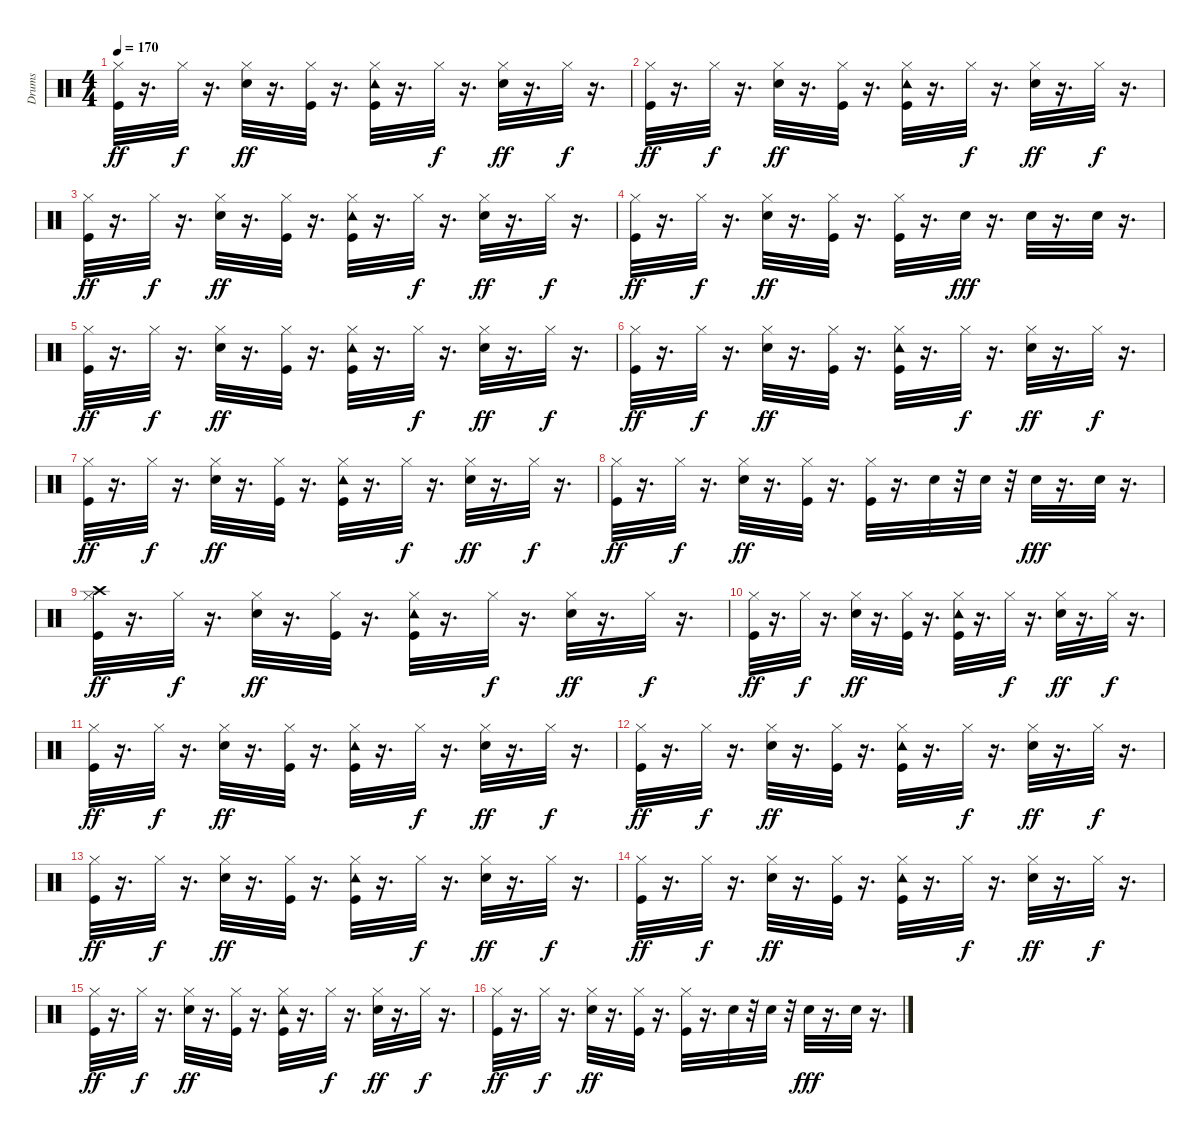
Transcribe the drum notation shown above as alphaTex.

\track ("Drums" "Drums") {instrument percussion}
\staff {score}
\articulation defaults
\ts (4 4)
\tempo 170
\clef neutral
\ks c
("Kick (hit)" "Hi-Hat (closed)").32{dy ff} r.16{d} "Hi-Hat (closed)".32{dy f} r.16{d} ("Snare (hit) 2" "Hi-Hat (closed)").32{dy ff} r.16{d} ("Hi-Hat (closed)" "Kick (hit)").32 r.16{d} ("Kick (hit)" "Tambourine (hit)" "Hi-Hat (closed)").32 r.16{d} "Hi-Hat (closed)".32{dy f} r.16{d} ("Snare (hit) 2" "Hi-Hat (closed)").32{dy ff} r.16{d} "Hi-Hat (closed)".32{dy f} r.16{d} |
("Kick (hit)" "Hi-Hat (closed)").32{dy ff} r.16{d} "Hi-Hat (closed)".32{dy f} r.16{d} ("Snare (hit) 2" "Hi-Hat (closed)").32{dy ff} r.16{d} ("Hi-Hat (closed)" "Kick (hit)").32 r.16{d} ("Kick (hit)" "Tambourine (hit)" "Hi-Hat (closed)").32 r.16{d} "Hi-Hat (closed)".32{dy f} r.16{d} ("Snare (hit) 2" "Hi-Hat (closed)").32{dy ff} r.16{d} "Hi-Hat (closed)".32{dy f} r.16{d} |
("Kick (hit)" "Hi-Hat (closed)").32{dy ff} r.16{d} "Hi-Hat (closed)".32{dy f} r.16{d} ("Snare (hit) 2" "Hi-Hat (closed)").32{dy ff} r.16{d} ("Hi-Hat (closed)" "Kick (hit)").32 r.16{d} ("Kick (hit)" "Tambourine (hit)" "Hi-Hat (closed)").32 r.16{d} "Hi-Hat (closed)".32{dy f} r.16{d} ("Snare (hit) 2" "Hi-Hat (closed)").32{dy ff} r.16{d} "Hi-Hat (closed)".32{dy f} r.16{d} |
("Kick (hit)" "Hi-Hat (closed)").32{dy ff} r.16{d} "Hi-Hat (closed)".32{dy f} r.16{d} ("Snare (hit) 2" "Hi-Hat (closed)").32{dy ff} r.16{d} ("Hi-Hat (closed)" "Kick (hit)").32 r.16{d} ("Kick (hit)" "Hi-Hat (closed)").32 r.16{d} "Snare (hit) 2".32{dy fff} r.16{d} "Snare (hit) 2".32 r.16{d} "Snare (hit) 2".32 r.16{d} |
("Kick (hit)" "Hi-Hat (closed)").32{dy ff} r.16{d} "Hi-Hat (closed)".32{dy f} r.16{d} ("Snare (hit) 2" "Hi-Hat (closed)").32{dy ff} r.16{d} ("Hi-Hat (closed)" "Kick (hit)").32 r.16{d} ("Kick (hit)" "Tambourine (hit)" "Hi-Hat (closed)").32 r.16{d} "Hi-Hat (closed)".32{dy f} r.16{d} ("Snare (hit) 2" "Hi-Hat (closed)").32{dy ff} r.16{d} "Hi-Hat (closed)".32{dy f} r.16{d} |
("Kick (hit)" "Hi-Hat (closed)").32{dy ff} r.16{d} "Hi-Hat (closed)".32{dy f} r.16{d} ("Snare (hit) 2" "Hi-Hat (closed)").32{dy ff} r.16{d} ("Hi-Hat (closed)" "Kick (hit)").32 r.16{d} ("Kick (hit)" "Tambourine (hit)" "Hi-Hat (closed)").32 r.16{d} "Hi-Hat (closed)".32{dy f} r.16{d} ("Snare (hit) 2" "Hi-Hat (closed)").32{dy ff} r.16{d} "Hi-Hat (closed)".32{dy f} r.16{d} |
("Kick (hit)" "Hi-Hat (closed)").32{dy ff} r.16{d} "Hi-Hat (closed)".32{dy f} r.16{d} ("Snare (hit) 2" "Hi-Hat (closed)").32{dy ff} r.16{d} ("Hi-Hat (closed)" "Kick (hit)").32 r.16{d} ("Kick (hit)" "Tambourine (hit)" "Hi-Hat (closed)").32 r.16{d} "Hi-Hat (closed)".32{dy f} r.16{d} ("Snare (hit) 2" "Hi-Hat (closed)").32{dy ff} r.16{d} "Hi-Hat (closed)".32{dy f} r.16{d} |
("Kick (hit)" "Hi-Hat (closed)").32{dy ff} r.16{d} "Hi-Hat (closed)".32{dy f} r.16{d} ("Snare (hit) 2" "Hi-Hat (closed)").32{dy ff} r.16{d} ("Hi-Hat (closed)" "Kick (hit)").32 r.16{d} ("Kick (hit)" "Hi-Hat (closed)").32 r.16{d} "Snare (hit) 2".32 r.32 "Snare (hit) 2".32 r.32 "Snare (hit) 2".32{dy fff} r.16{d} "Snare (hit) 2".32 r.16{d} |
("Kick (hit)" "Crash high (hit)" "Hi-Hat (closed)").32{dy ff} r.16{d} "Hi-Hat (closed)".32{dy f} r.16{d} ("Snare (hit) 2" "Hi-Hat (closed)").32{dy ff} r.16{d} ("Hi-Hat (closed)" "Kick (hit)").32 r.16{d} ("Kick (hit)" "Tambourine (hit)" "Hi-Hat (closed)").32 r.16{d} "Hi-Hat (closed)".32{dy f} r.16{d} ("Snare (hit) 2" "Hi-Hat (closed)").32{dy ff} r.16{d} "Hi-Hat (closed)".32{dy f} r.16{d} |
("Kick (hit)" "Hi-Hat (closed)").32{dy ff} r.16{d} "Hi-Hat (closed)".32{dy f} r.16{d} ("Snare (hit) 2" "Hi-Hat (closed)").32{dy ff} r.16{d} ("Hi-Hat (closed)" "Kick (hit)").32 r.16{d} ("Kick (hit)" "Tambourine (hit)" "Hi-Hat (closed)").32 r.16{d} "Hi-Hat (closed)".32{dy f} r.16{d} ("Snare (hit) 2" "Hi-Hat (closed)").32{dy ff} r.16{d} "Hi-Hat (closed)".32{dy f} r.16{d} |
("Kick (hit)" "Hi-Hat (closed)").32{dy ff} r.16{d} "Hi-Hat (closed)".32{dy f} r.16{d} ("Snare (hit) 2" "Hi-Hat (closed)").32{dy ff} r.16{d} ("Hi-Hat (closed)" "Kick (hit)").32 r.16{d} ("Kick (hit)" "Tambourine (hit)" "Hi-Hat (closed)").32 r.16{d} "Hi-Hat (closed)".32{dy f} r.16{d} ("Snare (hit) 2" "Hi-Hat (closed)").32{dy ff} r.16{d} "Hi-Hat (closed)".32{dy f} r.16{d} |
("Kick (hit)" "Hi-Hat (closed)").32{dy ff} r.16{d} "Hi-Hat (closed)".32{dy f} r.16{d} ("Snare (hit) 2" "Hi-Hat (closed)").32{dy ff} r.16{d} ("Hi-Hat (closed)" "Kick (hit)").32 r.16{d} ("Kick (hit)" "Tambourine (hit)" "Hi-Hat (closed)").32 r.16{d} "Hi-Hat (closed)".32{dy f} r.16{d} ("Snare (hit) 2" "Hi-Hat (closed)").32{dy ff} r.16{d} "Hi-Hat (closed)".32{dy f} r.16{d} |
("Kick (hit)" "Hi-Hat (closed)").32{dy ff} r.16{d} "Hi-Hat (closed)".32{dy f} r.16{d} ("Snare (hit) 2" "Hi-Hat (closed)").32{dy ff} r.16{d} ("Hi-Hat (closed)" "Kick (hit)").32 r.16{d} ("Kick (hit)" "Tambourine (hit)" "Hi-Hat (closed)").32 r.16{d} "Hi-Hat (closed)".32{dy f} r.16{d} ("Snare (hit) 2" "Hi-Hat (closed)").32{dy ff} r.16{d} "Hi-Hat (closed)".32{dy f} r.16{d} |
("Kick (hit)" "Hi-Hat (closed)").32{dy ff} r.16{d} "Hi-Hat (closed)".32{dy f} r.16{d} ("Snare (hit) 2" "Hi-Hat (closed)").32{dy ff} r.16{d} ("Hi-Hat (closed)" "Kick (hit)").32 r.16{d} ("Kick (hit)" "Tambourine (hit)" "Hi-Hat (closed)").32 r.16{d} "Hi-Hat (closed)".32{dy f} r.16{d} ("Snare (hit) 2" "Hi-Hat (closed)").32{dy ff} r.16{d} "Hi-Hat (closed)".32{dy f} r.16{d} |
("Kick (hit)" "Hi-Hat (closed)").32{dy ff} r.16{d} "Hi-Hat (closed)".32{dy f} r.16{d} ("Snare (hit) 2" "Hi-Hat (closed)").32{dy ff} r.16{d} ("Hi-Hat (closed)" "Kick (hit)").32 r.16{d} ("Kick (hit)" "Tambourine (hit)" "Hi-Hat (closed)").32 r.16{d} "Hi-Hat (closed)".32{dy f} r.16{d} ("Snare (hit) 2" "Hi-Hat (closed)").32{dy ff} r.16{d} "Hi-Hat (closed)".32{dy f} r.16{d} |
("Kick (hit)" "Hi-Hat (closed)").32{dy ff} r.16{d} "Hi-Hat (closed)".32{dy f} r.16{d} ("Snare (hit) 2" "Hi-Hat (closed)").32{dy ff} r.16{d} ("Hi-Hat (closed)" "Kick (hit)").32 r.16{d} ("Kick (hit)" "Hi-Hat (closed)").32 r.16{d} "Snare (hit) 2".32 r.32 "Snare (hit) 2".32 r.32 "Snare (hit) 2".32{dy fff} r.16{d} "Snare (hit) 2".32 r.16{d}
